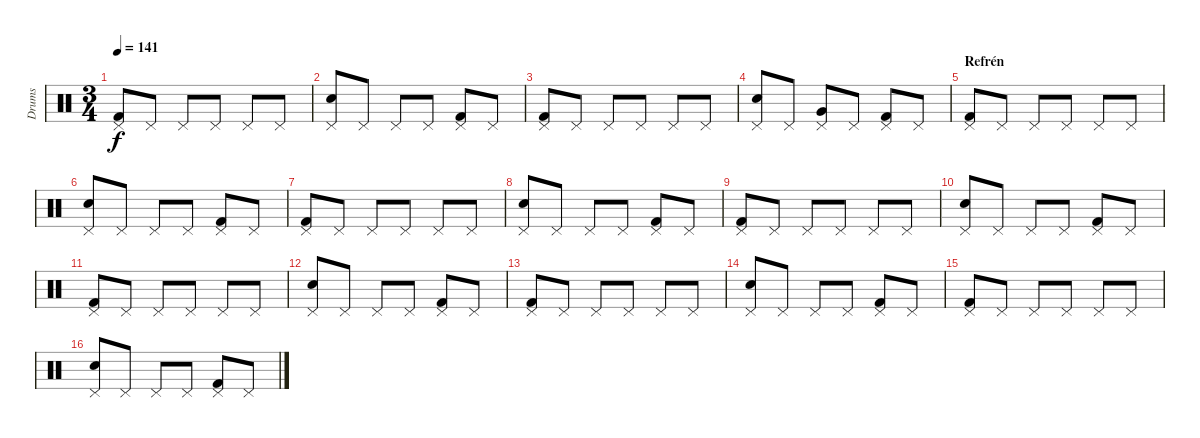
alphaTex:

\track ("Drums" "Drums") {instrument percussion}
\staff {score}
\articulation defaults
\ts (3 4)
\tempo 141
\clef neutral
\ks c
("Pedal Hi-Hat (hit)" "Kick (hit) 2").8{dy f} "Pedal Hi-Hat (hit)".8 "Pedal Hi-Hat (hit)".8 "Pedal Hi-Hat (hit)".8 "Pedal Hi-Hat (hit)".8 "Pedal Hi-Hat (hit)".8 |
("Pedal Hi-Hat (hit)" "Electric Snare (hit)").8 "Pedal Hi-Hat (hit)".8 "Pedal Hi-Hat (hit)".8 "Pedal Hi-Hat (hit)".8 ("Pedal Hi-Hat (hit)" "Kick (hit) 2").8 "Pedal Hi-Hat (hit)".8 |
("Pedal Hi-Hat (hit)" "Kick (hit) 2").8 "Pedal Hi-Hat (hit)".8 "Pedal Hi-Hat (hit)".8 "Pedal Hi-Hat (hit)".8 "Pedal Hi-Hat (hit)".8 "Pedal Hi-Hat (hit)".8 |
("Pedal Hi-Hat (hit)" "Electric Snare (hit)").8 "Pedal Hi-Hat (hit)".8 ("Pedal Hi-Hat (hit)" "Very Low Tom (hit)").8 "Pedal Hi-Hat (hit)".8 ("Pedal Hi-Hat (hit)" "Kick (hit) 2").8 "Pedal Hi-Hat (hit)".8 |
\section ("" "Refrén")
("Pedal Hi-Hat (hit)" "Kick (hit) 2").8 "Pedal Hi-Hat (hit)".8 "Pedal Hi-Hat (hit)".8 "Pedal Hi-Hat (hit)".8 "Pedal Hi-Hat (hit)".8 "Pedal Hi-Hat (hit)".8 |
("Pedal Hi-Hat (hit)" "Electric Snare (hit)").8 "Pedal Hi-Hat (hit)".8 "Pedal Hi-Hat (hit)".8 "Pedal Hi-Hat (hit)".8 ("Pedal Hi-Hat (hit)" "Kick (hit) 2").8 "Pedal Hi-Hat (hit)".8 |
("Pedal Hi-Hat (hit)" "Kick (hit) 2").8 "Pedal Hi-Hat (hit)".8 "Pedal Hi-Hat (hit)".8 "Pedal Hi-Hat (hit)".8 "Pedal Hi-Hat (hit)".8 "Pedal Hi-Hat (hit)".8 |
("Pedal Hi-Hat (hit)" "Electric Snare (hit)").8 "Pedal Hi-Hat (hit)".8 "Pedal Hi-Hat (hit)".8 "Pedal Hi-Hat (hit)".8 ("Pedal Hi-Hat (hit)" "Kick (hit) 2").8 "Pedal Hi-Hat (hit)".8 |
("Pedal Hi-Hat (hit)" "Kick (hit) 2").8 "Pedal Hi-Hat (hit)".8 "Pedal Hi-Hat (hit)".8 "Pedal Hi-Hat (hit)".8 "Pedal Hi-Hat (hit)".8 "Pedal Hi-Hat (hit)".8 |
("Pedal Hi-Hat (hit)" "Electric Snare (hit)").8 "Pedal Hi-Hat (hit)".8 "Pedal Hi-Hat (hit)".8 "Pedal Hi-Hat (hit)".8 ("Pedal Hi-Hat (hit)" "Kick (hit) 2").8 "Pedal Hi-Hat (hit)".8 |
("Pedal Hi-Hat (hit)" "Kick (hit) 2").8 "Pedal Hi-Hat (hit)".8 "Pedal Hi-Hat (hit)".8 "Pedal Hi-Hat (hit)".8 "Pedal Hi-Hat (hit)".8 "Pedal Hi-Hat (hit)".8 |
("Pedal Hi-Hat (hit)" "Electric Snare (hit)").8 "Pedal Hi-Hat (hit)".8 "Pedal Hi-Hat (hit)".8 "Pedal Hi-Hat (hit)".8 ("Pedal Hi-Hat (hit)" "Kick (hit) 2").8 "Pedal Hi-Hat (hit)".8 |
("Pedal Hi-Hat (hit)" "Kick (hit) 2").8 "Pedal Hi-Hat (hit)".8 "Pedal Hi-Hat (hit)".8 "Pedal Hi-Hat (hit)".8 "Pedal Hi-Hat (hit)".8 "Pedal Hi-Hat (hit)".8 |
("Pedal Hi-Hat (hit)" "Electric Snare (hit)").8 "Pedal Hi-Hat (hit)".8 "Pedal Hi-Hat (hit)".8 "Pedal Hi-Hat (hit)".8 ("Pedal Hi-Hat (hit)" "Kick (hit) 2").8 "Pedal Hi-Hat (hit)".8 |
("Pedal Hi-Hat (hit)" "Kick (hit) 2").8 "Pedal Hi-Hat (hit)".8 "Pedal Hi-Hat (hit)".8 "Pedal Hi-Hat (hit)".8 "Pedal Hi-Hat (hit)".8 "Pedal Hi-Hat (hit)".8 |
("Pedal Hi-Hat (hit)" "Electric Snare (hit)").8 "Pedal Hi-Hat (hit)".8 "Pedal Hi-Hat (hit)".8 "Pedal Hi-Hat (hit)".8 ("Pedal Hi-Hat (hit)" "Kick (hit) 2").8 "Pedal Hi-Hat (hit)".8
